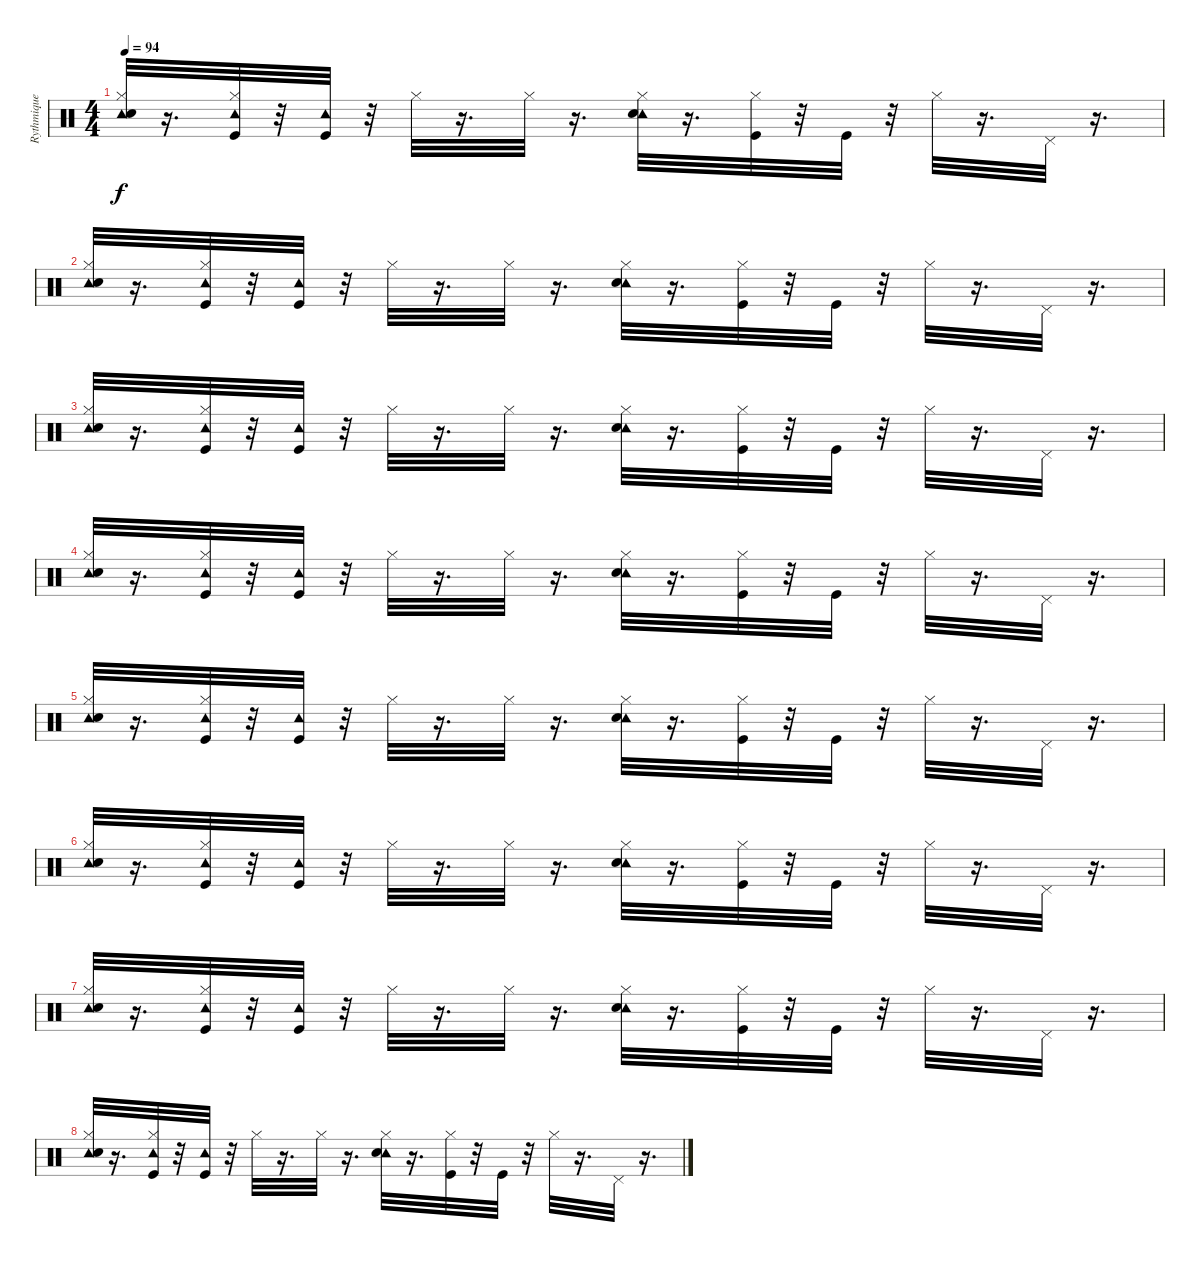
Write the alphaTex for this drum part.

\track ("Rythmique" "Rythmique") {instrument percussion}
\staff {score}
\articulation defaults
\ts (4 4)
\tempo 94
\clef neutral
\ks c
("Tambourine (hit)" "Hi-Hat (closed)" "Electric Snare (hit)").32{dy f} r.16{d} ("Tambourine (hit)" "Hi-Hat (closed)" "Kick (hit)").32 r.32 ("Tambourine (hit)" "Kick (hit)").32 r.32 "Hi-Hat (closed)".32 r.16{d} "Hi-Hat (closed)".32 r.16{d} ("Tambourine (hit)" "Hi-Hat (closed)" "Electric Snare (hit)").32 r.16{d} ("Hi-Hat (closed)" "Kick (hit)").32 r.32 "Kick (hit)".32 r.32 "Hi-Hat (closed)".32 r.16{d} "Pedal Hi-Hat (hit)".32 r.16{d} |
("Tambourine (hit)" "Hi-Hat (closed)" "Electric Snare (hit)").32 r.16{d} ("Tambourine (hit)" "Hi-Hat (closed)" "Kick (hit)").32 r.32 ("Tambourine (hit)" "Kick (hit)").32 r.32 "Hi-Hat (closed)".32 r.16{d} "Hi-Hat (closed)".32 r.16{d} ("Tambourine (hit)" "Hi-Hat (closed)" "Electric Snare (hit)").32 r.16{d} ("Hi-Hat (closed)" "Kick (hit)").32 r.32 "Kick (hit)".32 r.32 "Hi-Hat (closed)".32 r.16{d} "Pedal Hi-Hat (hit)".32 r.16{d} |
("Tambourine (hit)" "Hi-Hat (closed)" "Electric Snare (hit)").32 r.16{d} ("Tambourine (hit)" "Hi-Hat (closed)" "Kick (hit)").32 r.32 ("Tambourine (hit)" "Kick (hit)").32 r.32 "Hi-Hat (closed)".32 r.16{d} "Hi-Hat (closed)".32 r.16{d} ("Tambourine (hit)" "Hi-Hat (closed)" "Electric Snare (hit)").32 r.16{d} ("Hi-Hat (closed)" "Kick (hit)").32 r.32 "Kick (hit)".32 r.32 "Hi-Hat (closed)".32 r.16{d} "Pedal Hi-Hat (hit)".32 r.16{d} |
("Tambourine (hit)" "Hi-Hat (closed)" "Electric Snare (hit)").32 r.16{d} ("Tambourine (hit)" "Hi-Hat (closed)" "Kick (hit)").32 r.32 ("Tambourine (hit)" "Kick (hit)").32 r.32 "Hi-Hat (closed)".32 r.16{d} "Hi-Hat (closed)".32 r.16{d} ("Tambourine (hit)" "Hi-Hat (closed)" "Electric Snare (hit)").32 r.16{d} ("Hi-Hat (closed)" "Kick (hit)").32 r.32 "Kick (hit)".32 r.32 "Hi-Hat (closed)".32 r.16{d} "Pedal Hi-Hat (hit)".32 r.16{d} |
("Tambourine (hit)" "Hi-Hat (closed)" "Electric Snare (hit)").32 r.16{d} ("Tambourine (hit)" "Hi-Hat (closed)" "Kick (hit)").32 r.32 ("Tambourine (hit)" "Kick (hit)").32 r.32 "Hi-Hat (closed)".32 r.16{d} "Hi-Hat (closed)".32 r.16{d} ("Tambourine (hit)" "Hi-Hat (closed)" "Electric Snare (hit)").32 r.16{d} ("Hi-Hat (closed)" "Kick (hit)").32 r.32 "Kick (hit)".32 r.32 "Hi-Hat (closed)".32 r.16{d} "Pedal Hi-Hat (hit)".32 r.16{d} |
("Tambourine (hit)" "Hi-Hat (closed)" "Electric Snare (hit)").32 r.16{d} ("Tambourine (hit)" "Hi-Hat (closed)" "Kick (hit)").32 r.32 ("Tambourine (hit)" "Kick (hit)").32 r.32 "Hi-Hat (closed)".32 r.16{d} "Hi-Hat (closed)".32 r.16{d} ("Tambourine (hit)" "Hi-Hat (closed)" "Electric Snare (hit)").32 r.16{d} ("Hi-Hat (closed)" "Kick (hit)").32 r.32 "Kick (hit)".32 r.32 "Hi-Hat (closed)".32 r.16{d} "Pedal Hi-Hat (hit)".32 r.16{d} |
("Tambourine (hit)" "Hi-Hat (closed)" "Electric Snare (hit)").32 r.16{d} ("Tambourine (hit)" "Hi-Hat (closed)" "Kick (hit)").32 r.32 ("Tambourine (hit)" "Kick (hit)").32 r.32 "Hi-Hat (closed)".32 r.16{d} "Hi-Hat (closed)".32 r.16{d} ("Tambourine (hit)" "Hi-Hat (closed)" "Electric Snare (hit)").32 r.16{d} ("Hi-Hat (closed)" "Kick (hit)").32 r.32 "Kick (hit)".32 r.32 "Hi-Hat (closed)".32 r.16{d} "Pedal Hi-Hat (hit)".32 r.16{d} |
("Tambourine (hit)" "Hi-Hat (closed)" "Electric Snare (hit)").32 r.16{d} ("Tambourine (hit)" "Hi-Hat (closed)" "Kick (hit)").32 r.32 ("Tambourine (hit)" "Kick (hit)").32 r.32 "Hi-Hat (closed)".32 r.16{d} "Hi-Hat (closed)".32 r.16{d} ("Tambourine (hit)" "Hi-Hat (closed)" "Electric Snare (hit)").32 r.16{d} ("Hi-Hat (closed)" "Kick (hit)").32 r.32 "Kick (hit)".32 r.32 "Hi-Hat (closed)".32 r.16{d} "Pedal Hi-Hat (hit)".32 r.16{d}
